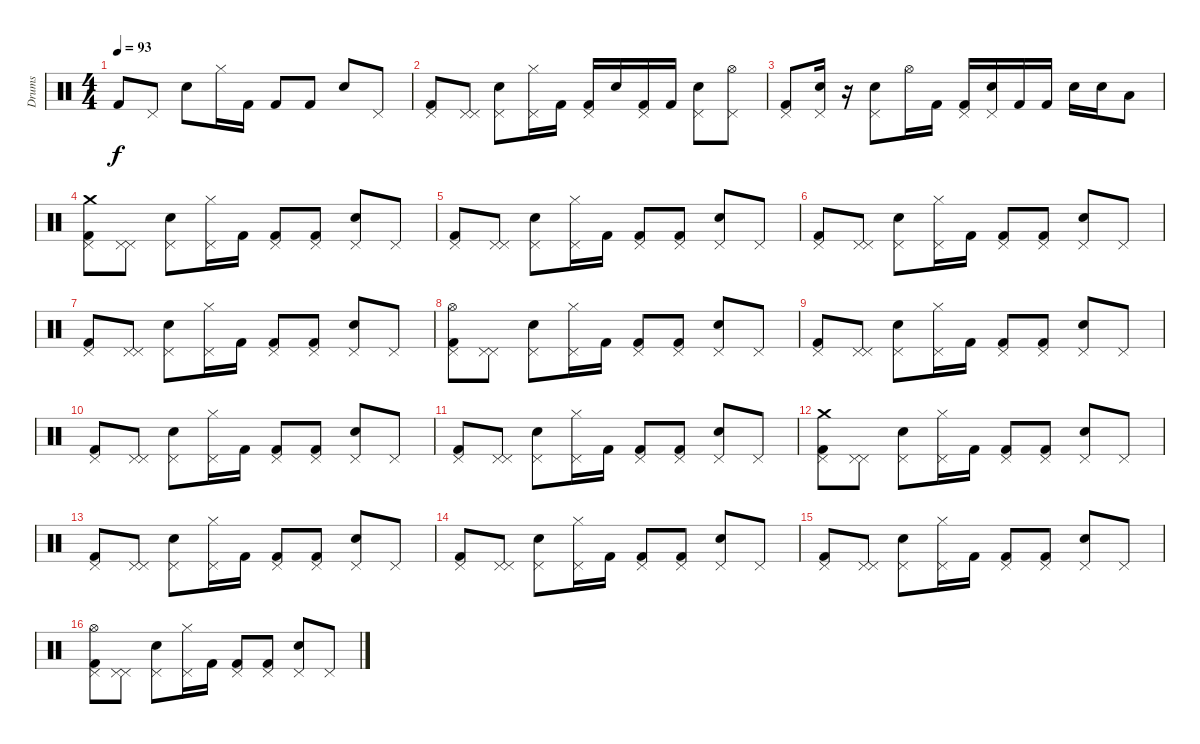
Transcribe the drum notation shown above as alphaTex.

\track ("Drums" "Drums") {instrument percussion}
\staff {score}
\articulation defaults
\ts (4 4)
\tempo 93
\clef neutral
\ks c "Kick (hit) 2".8{dy f} "Pedal Hi-Hat (hit)".8 "Electric Snare (hit)".8 "Hi-Hat (closed)".16 "Kick (hit) 2".16 "Kick (hit) 2".8 "Kick (hit) 2".8 "Electric Snare (hit)".8 "Pedal Hi-Hat (hit)".8
|
("Pedal Hi-Hat (hit)" "Kick (hit) 2").8 ("Pedal Hi-Hat (hit)" "Pedal Hi-Hat (hit)").8 ("Electric Snare (hit)" "Pedal Hi-Hat (hit)").8 ("Hi-Hat (closed)" "Pedal Hi-Hat (hit)").16 "Kick (hit) 2".16 ("Pedal Hi-Hat (hit)" "Kick (hit) 2").16 "Electric Snare (hit)".16 ("Pedal Hi-Hat (hit)" "Kick (hit) 2").16 "Kick (hit) 2".16 ("Electric Snare (hit)" "Pedal Hi-Hat (hit)").8 ("Hi-Hat (open)" "Pedal Hi-Hat (hit)").8 |
("Pedal Hi-Hat (hit)" "Kick (hit) 2").8 ("Electric Snare (hit)" "Pedal Hi-Hat (hit)").16 r.16 ("Electric Snare (hit)" "Pedal Hi-Hat (hit)").8 "Hi-Hat (open)".16 "Kick (hit) 2".16 ("Pedal Hi-Hat (hit)" "Kick (hit) 2").16 ("Electric Snare (hit)" "Pedal Hi-Hat (hit)").16 "Kick (hit) 2".16 "Kick (hit) 2".16 "Electric Snare (hit)".16 "Electric Snare (hit)".16 "Low Tom (hit)".8 |
("Crash medium (hit)" "Pedal Hi-Hat (hit)" "Kick (hit) 2").8 ("Pedal Hi-Hat (hit)" "Pedal Hi-Hat (hit)").8 ("Electric Snare (hit)" "Pedal Hi-Hat (hit)").8 ("Hi-Hat (closed)" "Pedal Hi-Hat (hit)").16 "Kick (hit) 2".16 ("Pedal Hi-Hat (hit)" "Kick (hit) 2").8 ("Pedal Hi-Hat (hit)" "Kick (hit) 2").8 ("Electric Snare (hit)" "Pedal Hi-Hat (hit)").8 "Pedal Hi-Hat (hit)".8 |
("Pedal Hi-Hat (hit)" "Kick (hit) 2").8 ("Pedal Hi-Hat (hit)" "Pedal Hi-Hat (hit)").8 ("Electric Snare (hit)" "Pedal Hi-Hat (hit)").8 ("Hi-Hat (closed)" "Pedal Hi-Hat (hit)").16 "Kick (hit) 2".16 ("Pedal Hi-Hat (hit)" "Kick (hit) 2").8 ("Pedal Hi-Hat (hit)" "Kick (hit) 2").8 ("Electric Snare (hit)" "Pedal Hi-Hat (hit)").8 "Pedal Hi-Hat (hit)".8 |
("Pedal Hi-Hat (hit)" "Kick (hit) 2").8 ("Pedal Hi-Hat (hit)" "Pedal Hi-Hat (hit)").8 ("Electric Snare (hit)" "Pedal Hi-Hat (hit)").8 ("Hi-Hat (closed)" "Pedal Hi-Hat (hit)").16 "Kick (hit) 2".16 ("Pedal Hi-Hat (hit)" "Kick (hit) 2").8 ("Pedal Hi-Hat (hit)" "Kick (hit) 2").8 ("Electric Snare (hit)" "Pedal Hi-Hat (hit)").8 "Pedal Hi-Hat (hit)".8 |
("Pedal Hi-Hat (hit)" "Kick (hit) 2").8 ("Pedal Hi-Hat (hit)" "Pedal Hi-Hat (hit)").8 ("Electric Snare (hit)" "Pedal Hi-Hat (hit)").8 ("Hi-Hat (closed)" "Pedal Hi-Hat (hit)").16 "Kick (hit) 2".16 ("Pedal Hi-Hat (hit)" "Kick (hit) 2").8 ("Pedal Hi-Hat (hit)" "Kick (hit) 2").8 ("Electric Snare (hit)" "Pedal Hi-Hat (hit)").8 "Pedal Hi-Hat (hit)".8 |
("Hi-Hat (open)" "Pedal Hi-Hat (hit)" "Kick (hit) 2").8 ("Pedal Hi-Hat (hit)" "Pedal Hi-Hat (hit)").8 ("Electric Snare (hit)" "Pedal Hi-Hat (hit)").8 ("Hi-Hat (closed)" "Pedal Hi-Hat (hit)").16 "Kick (hit) 2".16 ("Pedal Hi-Hat (hit)" "Kick (hit) 2").8 ("Pedal Hi-Hat (hit)" "Kick (hit) 2").8 ("Electric Snare (hit)" "Pedal Hi-Hat (hit)").8 "Pedal Hi-Hat (hit)".8 |
("Pedal Hi-Hat (hit)" "Kick (hit) 2").8 ("Pedal Hi-Hat (hit)" "Pedal Hi-Hat (hit)").8 ("Electric Snare (hit)" "Pedal Hi-Hat (hit)").8 ("Hi-Hat (closed)" "Pedal Hi-Hat (hit)").16 "Kick (hit) 2".16 ("Pedal Hi-Hat (hit)" "Kick (hit) 2").8 ("Pedal Hi-Hat (hit)" "Kick (hit) 2").8 ("Electric Snare (hit)" "Pedal Hi-Hat (hit)").8 "Pedal Hi-Hat (hit)".8 |
("Pedal Hi-Hat (hit)" "Kick (hit) 2").8 ("Pedal Hi-Hat (hit)" "Pedal Hi-Hat (hit)").8 ("Electric Snare (hit)" "Pedal Hi-Hat (hit)").8 ("Hi-Hat (closed)" "Pedal Hi-Hat (hit)").16 "Kick (hit) 2".16 ("Pedal Hi-Hat (hit)" "Kick (hit) 2").8 ("Pedal Hi-Hat (hit)" "Kick (hit) 2").8 ("Electric Snare (hit)" "Pedal Hi-Hat (hit)").8 "Pedal Hi-Hat (hit)".8 |
("Pedal Hi-Hat (hit)" "Kick (hit) 2").8 ("Pedal Hi-Hat (hit)" "Pedal Hi-Hat (hit)").8 ("Electric Snare (hit)" "Pedal Hi-Hat (hit)").8 ("Hi-Hat (closed)" "Pedal Hi-Hat (hit)").16 "Kick (hit) 2".16 ("Pedal Hi-Hat (hit)" "Kick (hit) 2").8 ("Pedal Hi-Hat (hit)" "Kick (hit) 2").8 ("Electric Snare (hit)" "Pedal Hi-Hat (hit)").8 "Pedal Hi-Hat (hit)".8 |
("Crash medium (hit)" "Pedal Hi-Hat (hit)" "Kick (hit) 2").8 ("Pedal Hi-Hat (hit)" "Pedal Hi-Hat (hit)").8 ("Electric Snare (hit)" "Pedal Hi-Hat (hit)").8 ("Hi-Hat (closed)" "Pedal Hi-Hat (hit)").16 "Kick (hit) 2".16 ("Pedal Hi-Hat (hit)" "Kick (hit) 2").8 ("Pedal Hi-Hat (hit)" "Kick (hit) 2").8 ("Electric Snare (hit)" "Pedal Hi-Hat (hit)").8 "Pedal Hi-Hat (hit)".8 |
("Pedal Hi-Hat (hit)" "Kick (hit) 2").8 ("Pedal Hi-Hat (hit)" "Pedal Hi-Hat (hit)").8 ("Electric Snare (hit)" "Pedal Hi-Hat (hit)").8 ("Hi-Hat (closed)" "Pedal Hi-Hat (hit)").16 "Kick (hit) 2".16 ("Pedal Hi-Hat (hit)" "Kick (hit) 2").8 ("Pedal Hi-Hat (hit)" "Kick (hit) 2").8 ("Electric Snare (hit)" "Pedal Hi-Hat (hit)").8 "Pedal Hi-Hat (hit)".8 |
("Pedal Hi-Hat (hit)" "Kick (hit) 2").8 ("Pedal Hi-Hat (hit)" "Pedal Hi-Hat (hit)").8 ("Electric Snare (hit)" "Pedal Hi-Hat (hit)").8 ("Hi-Hat (closed)" "Pedal Hi-Hat (hit)").16 "Kick (hit) 2".16 ("Pedal Hi-Hat (hit)" "Kick (hit) 2").8 ("Pedal Hi-Hat (hit)" "Kick (hit) 2").8 ("Electric Snare (hit)" "Pedal Hi-Hat (hit)").8 "Pedal Hi-Hat (hit)".8 |
("Pedal Hi-Hat (hit)" "Kick (hit) 2").8 ("Pedal Hi-Hat (hit)" "Pedal Hi-Hat (hit)").8 ("Electric Snare (hit)" "Pedal Hi-Hat (hit)").8 ("Hi-Hat (closed)" "Pedal Hi-Hat (hit)").16 "Kick (hit) 2".16 ("Pedal Hi-Hat (hit)" "Kick (hit) 2").8 ("Pedal Hi-Hat (hit)" "Kick (hit) 2").8 ("Electric Snare (hit)" "Pedal Hi-Hat (hit)").8 "Pedal Hi-Hat (hit)".8 |
("Hi-Hat (open)" "Pedal Hi-Hat (hit)" "Kick (hit) 2").8 ("Pedal Hi-Hat (hit)" "Pedal Hi-Hat (hit)").8 ("Electric Snare (hit)" "Pedal Hi-Hat (hit)").8 ("Hi-Hat (closed)" "Pedal Hi-Hat (hit)").16 "Kick (hit) 2".16 ("Pedal Hi-Hat (hit)" "Kick (hit) 2").8 ("Pedal Hi-Hat (hit)" "Kick (hit) 2").8 ("Electric Snare (hit)" "Pedal Hi-Hat (hit)").8 "Pedal Hi-Hat (hit)".8
